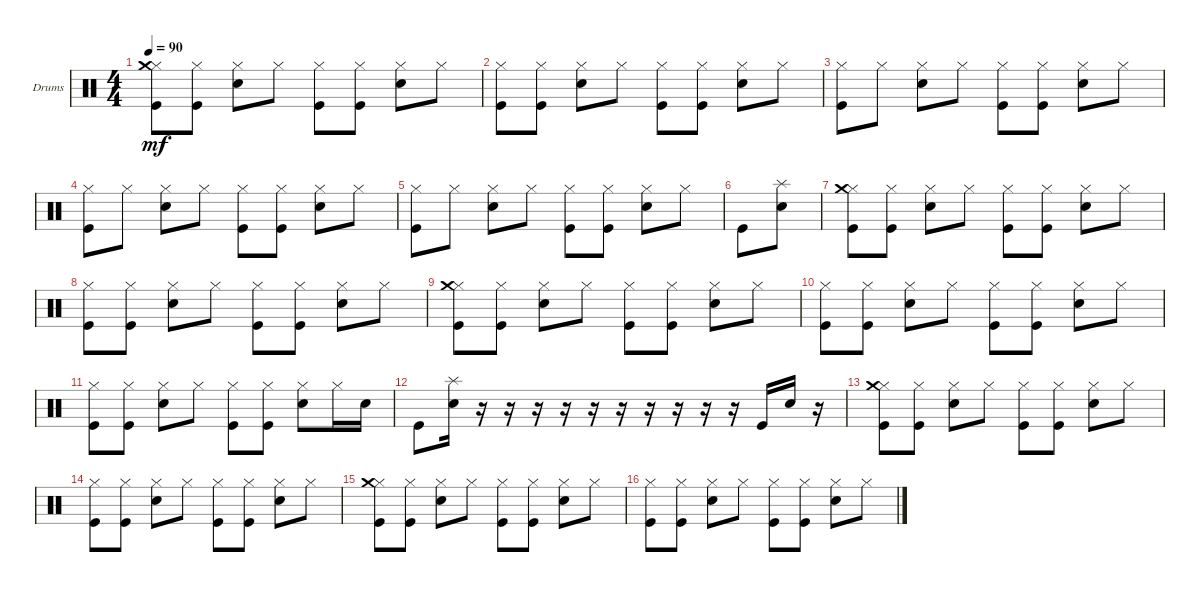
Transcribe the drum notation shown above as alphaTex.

\defaultSystemsLayout 4
\bracketExtendMode groupsimilarinstruments
\firstSystemTrackNameOrientation horizontal
\otherSystemsTrackNameOrientation horizontal
\track ("Drumkit" "Drums") {instrument percussion}
\staff {score}
\articulation defaults
\ts (4 4)
\tempo 90
\clef neutral
\ks c
("Kick (hit)" "Hi-Hat (closed)" "Crash medium (hit)").8{dy mf} ("Kick (hit)" "Hi-Hat (closed)").8 ("Hi-Hat (closed)" "Snare (hit) 2").8 "Hi-Hat (closed)".8 ("Hi-Hat (closed)" "Kick (hit)").8 ("Hi-Hat (closed)" "Kick (hit)").8 ("Hi-Hat (closed)" "Snare (hit) 2").8 "Hi-Hat (closed)".8 |
("Kick (hit)" "Hi-Hat (closed)").8 ("Kick (hit)" "Hi-Hat (closed)").8 ("Hi-Hat (closed)" "Snare (hit) 2").8 "Hi-Hat (closed)".8 ("Hi-Hat (closed)" "Kick (hit)").8 ("Hi-Hat (closed)" "Kick (hit)").8 ("Hi-Hat (closed)" "Snare (hit) 2").8 "Hi-Hat (closed)".8 |
("Kick (hit)" "Hi-Hat (closed)").8 "Hi-Hat (closed)".8 ("Hi-Hat (closed)" "Snare (hit) 2").8 "Hi-Hat (closed)".8 ("Hi-Hat (closed)" "Kick (hit)").8 ("Hi-Hat (closed)" "Kick (hit)").8 ("Hi-Hat (closed)" "Snare (hit) 2").8 "Hi-Hat (closed)".8 |
("Kick (hit)" "Hi-Hat (closed)").8 "Hi-Hat (closed)".8 ("Hi-Hat (closed)" "Snare (hit) 2").8 "Hi-Hat (closed)".8 ("Hi-Hat (closed)" "Kick (hit)").8 ("Hi-Hat (closed)" "Kick (hit)").8 ("Hi-Hat (closed)" "Snare (hit) 2").8 "Hi-Hat (closed)".8 |
("Kick (hit)" "Hi-Hat (closed)").8 "Hi-Hat (closed)".8 ("Hi-Hat (closed)" "Snare (hit) 2").8 "Hi-Hat (closed)".8 ("Hi-Hat (closed)" "Kick (hit)").8 ("Hi-Hat (closed)" "Kick (hit)").8 ("Hi-Hat (closed)" "Snare (hit) 2").8 "Hi-Hat (closed)".8 |
"Kick (hit)".8 ("Snare (hit) 2" "Splash (hit)").8 |
("Kick (hit)" "Hi-Hat (closed)" "Crash medium (hit)").8 ("Kick (hit)" "Hi-Hat (closed)").8 ("Hi-Hat (closed)" "Snare (hit) 2").8 "Hi-Hat (closed)".8 ("Hi-Hat (closed)" "Kick (hit)").8 ("Hi-Hat (closed)" "Kick (hit)").8 ("Hi-Hat (closed)" "Snare (hit) 2").8 "Hi-Hat (closed)".8 |
("Kick (hit)" "Hi-Hat (closed)").8 ("Kick (hit)" "Hi-Hat (closed)").8 ("Hi-Hat (closed)" "Snare (hit) 2").8 "Hi-Hat (closed)".8 ("Hi-Hat (closed)" "Kick (hit)").8 ("Hi-Hat (closed)" "Kick (hit)").8 ("Hi-Hat (closed)" "Snare (hit) 2").8 "Hi-Hat (closed)".8 |
("Kick (hit)" "Hi-Hat (closed)" "Crash medium (hit)").8 ("Kick (hit)" "Hi-Hat (closed)").8 ("Hi-Hat (closed)" "Snare (hit) 2").8 "Hi-Hat (closed)".8 ("Hi-Hat (closed)" "Kick (hit)").8 ("Hi-Hat (closed)" "Kick (hit)").8 ("Hi-Hat (closed)" "Snare (hit) 2").8 "Hi-Hat (closed)".8 |
("Kick (hit)" "Hi-Hat (closed)").8 ("Kick (hit)" "Hi-Hat (closed)").8 ("Hi-Hat (closed)" "Snare (hit) 2").8 "Hi-Hat (closed)".8 ("Hi-Hat (closed)" "Kick (hit)").8 ("Hi-Hat (closed)" "Kick (hit)").8 ("Hi-Hat (closed)" "Snare (hit) 2").8 "Hi-Hat (closed)".8 |
("Kick (hit)" "Hi-Hat (closed)").8 ("Kick (hit)" "Hi-Hat (closed)").8 ("Hi-Hat (closed)" "Snare (hit) 2").8 "Hi-Hat (closed)".8 ("Hi-Hat (closed)" "Kick (hit)").8 ("Hi-Hat (closed)" "Kick (hit)").8 ("Hi-Hat (closed)" "Snare (hit) 2").8 "Hi-Hat (closed)".16 "Snare (hit) 2".16 |
"Kick (hit)".8 ("Snare (hit) 2" "Splash (hit)").16 r.16 r.16 r.16 r.16 r.16 r.16 r.16 r.16 r.16 r.16 "Kick (hit)".16 "Snare (hit) 2".16 r.16 |
("Kick (hit)" "Hi-Hat (closed)" "Crash medium (hit)").8 ("Kick (hit)" "Hi-Hat (closed)").8 ("Hi-Hat (closed)" "Snare (hit) 2").8 "Hi-Hat (closed)".8 ("Hi-Hat (closed)" "Kick (hit)").8 ("Hi-Hat (closed)" "Kick (hit)").8 ("Hi-Hat (closed)" "Snare (hit) 2").8 "Hi-Hat (closed)".8 |
("Kick (hit)" "Hi-Hat (closed)").8 ("Kick (hit)" "Hi-Hat (closed)").8 ("Hi-Hat (closed)" "Snare (hit) 2").8 "Hi-Hat (closed)".8 ("Hi-Hat (closed)" "Kick (hit)").8 ("Hi-Hat (closed)" "Kick (hit)").8 ("Hi-Hat (closed)" "Snare (hit) 2").8 "Hi-Hat (closed)".8 |
("Kick (hit)" "Hi-Hat (closed)" "Crash medium (hit)").8 ("Kick (hit)" "Hi-Hat (closed)").8 ("Hi-Hat (closed)" "Snare (hit) 2").8 "Hi-Hat (closed)".8 ("Hi-Hat (closed)" "Kick (hit)").8 ("Hi-Hat (closed)" "Kick (hit)").8 ("Hi-Hat (closed)" "Snare (hit) 2").8 "Hi-Hat (closed)".8 |
("Kick (hit)" "Hi-Hat (closed)").8 ("Kick (hit)" "Hi-Hat (closed)").8 ("Hi-Hat (closed)" "Snare (hit) 2").8 "Hi-Hat (closed)".8 ("Hi-Hat (closed)" "Kick (hit)").8 ("Hi-Hat (closed)" "Kick (hit)").8 ("Hi-Hat (closed)" "Snare (hit) 2").8 "Hi-Hat (closed)".8
